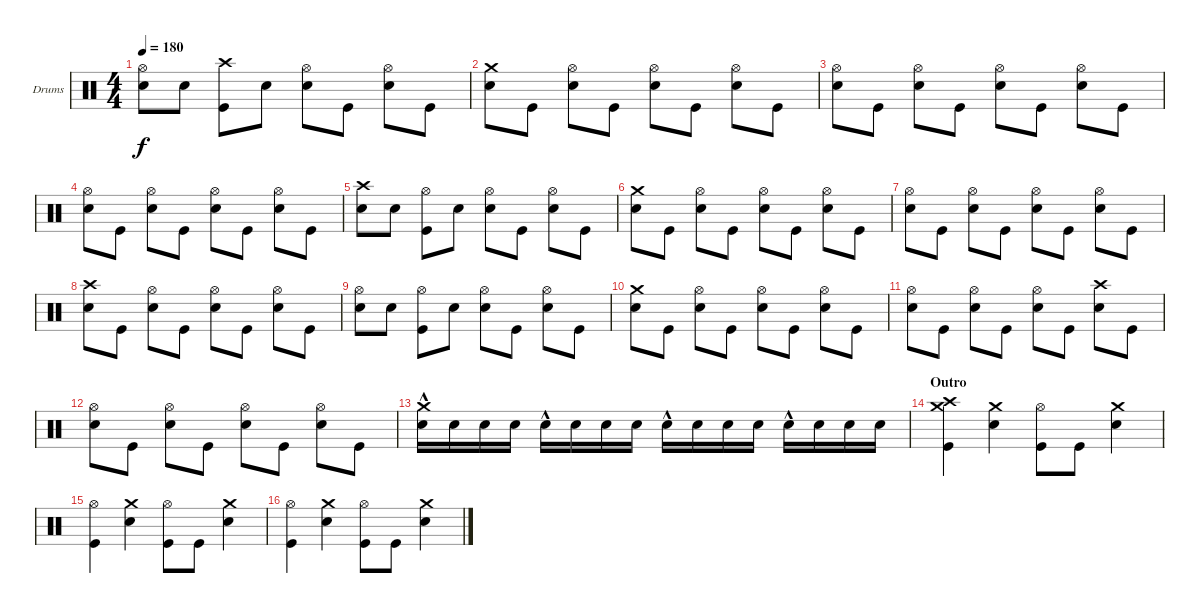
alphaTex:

\defaultSystemsLayout 4
\bracketExtendMode groupsimilarinstruments
\firstSystemTrackNameOrientation horizontal
\otherSystemsTrackNameOrientation horizontal
\track ("Drumkit" "Drums") {instrument percussion}
\staff {score}
\articulation defaults
\ts (4 4)
\tempo 180
\clef neutral
\ks c
("Snare (hit) 2" "Hi-Hat (open)").8{dy f} "Snare (hit) 2".8 ("Kick (hit)" "Crash high (hit)").8 "Snare (hit) 2".8 ("Snare (hit) 2" "Hi-Hat (open)").8 "Kick (hit)".8 ("Snare (hit) 2" "Hi-Hat (open)").8 "Kick (hit)".8 |
("Crash medium (hit)" "Snare (hit) 2").8 "Kick (hit)".8 ("Hi-Hat (open)" "Snare (hit) 2").8 "Kick (hit)".8 ("Hi-Hat (open)" "Snare (hit) 2").8 "Kick (hit)".8 ("Hi-Hat (open)" "Snare (hit) 2").8 "Kick (hit)".8 |
("Snare (hit) 2" "Hi-Hat (open)").8 "Kick (hit)".8 ("Hi-Hat (open)" "Snare (hit) 2").8 "Kick (hit)".8 ("Hi-Hat (open)" "Snare (hit) 2").8 "Kick (hit)".8 ("Hi-Hat (open)" "Snare (hit) 2").8 "Kick (hit)".8 |
("Snare (hit) 2" "Hi-Hat (open)").8 "Kick (hit)".8 ("Hi-Hat (open)" "Snare (hit) 2").8 "Kick (hit)".8 ("Hi-Hat (open)" "Snare (hit) 2").8 "Kick (hit)".8 ("Hi-Hat (open)" "Snare (hit) 2").8 "Kick (hit)".8 |
("Snare (hit) 2" "Crash high (hit)").8 "Snare (hit) 2".8 ("Kick (hit)" "Hi-Hat (open)").8 "Snare (hit) 2".8 ("Snare (hit) 2" "Hi-Hat (open)").8 "Kick (hit)".8 ("Snare (hit) 2" "Hi-Hat (open)").8 "Kick (hit)".8 |
("Crash medium (hit)" "Snare (hit) 2").8 "Kick (hit)".8 ("Hi-Hat (open)" "Snare (hit) 2").8 "Kick (hit)".8 ("Hi-Hat (open)" "Snare (hit) 2").8 "Kick (hit)".8 ("Hi-Hat (open)" "Snare (hit) 2").8 "Kick (hit)".8 |
("Snare (hit) 2" "Hi-Hat (open)").8 "Kick (hit)".8 ("Snare (hit) 2" "Hi-Hat (open)").8 "Kick (hit)".8 ("Hi-Hat (open)" "Snare (hit) 2").8 "Kick (hit)".8 ("Hi-Hat (open)" "Snare (hit) 2").8 "Kick (hit)".8 |
("Snare (hit) 2" "Crash high (hit)").8 "Kick (hit)".8 ("Hi-Hat (open)" "Snare (hit) 2").8 "Kick (hit)".8 ("Hi-Hat (open)" "Snare (hit) 2").8 "Kick (hit)".8 ("Hi-Hat (open)" "Snare (hit) 2").8 "Kick (hit)".8 |
("Snare (hit) 2" "Hi-Hat (open)").8 "Snare (hit) 2".8 ("Kick (hit)" "Hi-Hat (open)").8 "Snare (hit) 2".8 ("Snare (hit) 2" "Hi-Hat (open)").8 "Kick (hit)".8 ("Snare (hit) 2" "Hi-Hat (open)").8 "Kick (hit)".8 |
("Crash medium (hit)" "Snare (hit) 2").8 "Kick (hit)".8 ("Hi-Hat (open)" "Snare (hit) 2").8 "Kick (hit)".8 ("Hi-Hat (open)" "Snare (hit) 2").8 "Kick (hit)".8 ("Hi-Hat (open)" "Snare (hit) 2").8 "Kick (hit)".8 |
("Snare (hit) 2" "Hi-Hat (open)").8 "Kick (hit)".8 ("Hi-Hat (open)" "Snare (hit) 2").8 "Kick (hit)".8 ("Hi-Hat (open)" "Snare (hit) 2").8 "Kick (hit)".8 ("Snare (hit) 2" "Crash high (hit)").8 "Kick (hit)".8 |
("Snare (hit) 2" "Hi-Hat (open)").8 "Kick (hit)".8 ("Hi-Hat (open)" "Snare (hit) 2").8 "Kick (hit)".8 ("Hi-Hat (open)" "Snare (hit) 2").8 "Kick (hit)".8 ("Hi-Hat (open)" "Snare (hit) 2").8 "Kick (hit)".8 |
("Snare (hit) 2"{hac} "Crash medium (hit)").16 "Snare (hit) 2".16 "Snare (hit) 2".16 "Snare (hit) 2".16 "Snare (hit) 2"{hac}.16 "Snare (hit) 2".16 "Snare (hit) 2".16 "Snare (hit) 2".16 "Snare (hit) 2"{hac}.16 "Snare (hit) 2".16 "Snare (hit) 2".16 "Snare (hit) 2".16 "Snare (hit) 2"{hac}.16 "Snare (hit) 2".16 "Snare (hit) 2".16 "Snare (hit) 2".16 |
\section ("" "Outro")
("Crash medium (hit)" "Kick (hit)" "Crash high (hit)").4 ("Crash medium (hit)" "Snare (hit) 2").4 ("Kick (hit)" "Hi-Hat (open)").8 "Kick (hit)".8 ("Snare (hit) 2" "Crash medium (hit)").4 |
("Kick (hit)" "Hi-Hat (open)").4 ("Crash medium (hit)" "Snare (hit) 2").4 ("Kick (hit)" "Hi-Hat (open)").8 "Kick (hit)".8 ("Snare (hit) 2" "Crash medium (hit)").4 |
("Kick (hit)" "Hi-Hat (open)").4 ("Crash medium (hit)" "Snare (hit) 2").4 ("Kick (hit)" "Hi-Hat (open)").8 "Kick (hit)".8 ("Snare (hit) 2" "Crash medium (hit)").4
